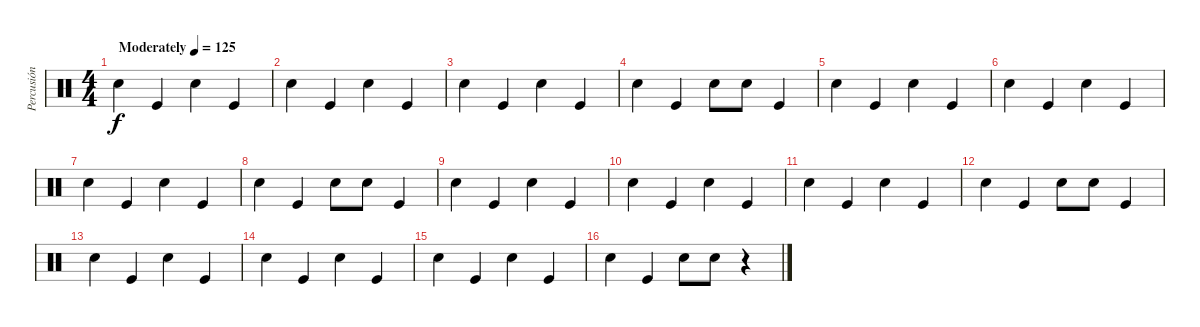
\track ("Percusión" "Percusión") {instrument percussion}
\staff {score}
\articulation defaults
\ts (4 4)
\tempo (125 "Moderately")
\clef neutral
\ks c "Snare (hit) 2".4{dy f} "Kick (hit)".4 "Snare (hit) 2".4 "Kick (hit)".4
|
"Snare (hit) 2".4 "Kick (hit)".4 "Snare (hit) 2".4 "Kick (hit)".4 |
"Snare (hit) 2".4 "Kick (hit)".4 "Snare (hit) 2".4 "Kick (hit)".4 |
"Snare (hit) 2".4 "Kick (hit)".4 "Snare (hit) 2".8 "Snare (hit) 2".8 "Kick (hit)".4 |
"Snare (hit) 2".4 "Kick (hit)".4 "Snare (hit) 2".4 "Kick (hit)".4 |
"Snare (hit) 2".4 "Kick (hit)".4 "Snare (hit) 2".4 "Kick (hit)".4 |
"Snare (hit) 2".4 "Kick (hit)".4 "Snare (hit) 2".4 "Kick (hit)".4 |
"Snare (hit) 2".4 "Kick (hit)".4 "Snare (hit) 2".8 "Snare (hit) 2".8 "Kick (hit)".4 |
"Snare (hit) 2".4 "Kick (hit)".4 "Snare (hit) 2".4 "Kick (hit)".4 |
"Snare (hit) 2".4 "Kick (hit)".4 "Snare (hit) 2".4 "Kick (hit)".4 |
"Snare (hit) 2".4 "Kick (hit)".4 "Snare (hit) 2".4 "Kick (hit)".4 |
"Snare (hit) 2".4 "Kick (hit)".4 "Snare (hit) 2".8 "Snare (hit) 2".8 "Kick (hit)".4 |
"Snare (hit) 2".4 "Kick (hit)".4 "Snare (hit) 2".4 "Kick (hit)".4 |
"Snare (hit) 2".4 "Kick (hit)".4 "Snare (hit) 2".4 "Kick (hit)".4 |
"Snare (hit) 2".4 "Kick (hit)".4 "Snare (hit) 2".4 "Kick (hit)".4 |
"Snare (hit) 2".4 "Kick (hit)".4 "Snare (hit) 2".8 "Snare (hit) 2".8 r.4
